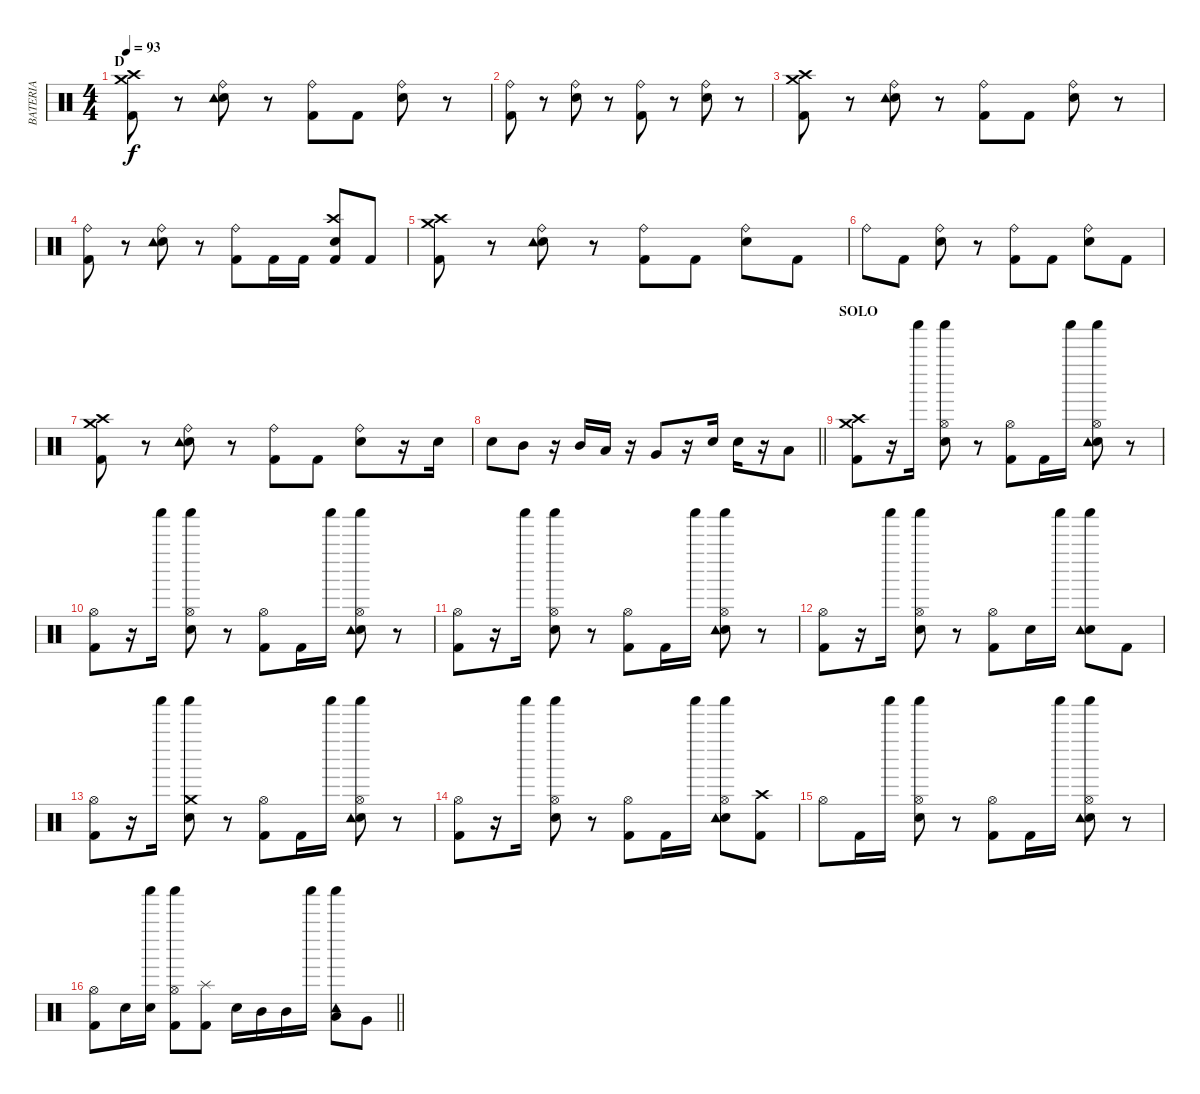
\track ("BATERIA" "BATERIA") {instrument percussion}
\staff {score}
\articulation defaults
\ts (4 4)
\section ("" "D")
\tempo 93
\clef neutral
\ks c
("Kick (hit) 2" "Crash high (hit)" "Crash medium (hit)").8{dy f} r.8 ("Electric Snare (hit)" "Ride (bell)" "Tambourine (hit)").8 r.8 ("Kick (hit) 2" "Ride (bell)").8 "Kick (hit) 2".8 ("Electric Snare (hit)" "Ride (bell)").8 r.8 |
("Kick (hit) 2" "Ride (bell)").8 r.8 ("Electric Snare (hit)" "Ride (bell)").8 r.8 ("Kick (hit) 2" "Ride (bell)").8 r.8 ("Electric Snare (hit)" "Ride (bell)").8 r.8 |
("Kick (hit) 2" "Crash medium (hit)" "Crash high (hit)").8 r.8 ("Electric Snare (hit)" "Ride (bell)" "Tambourine (hit)").8 r.8 ("Kick (hit) 2" "Ride (bell)").8 "Kick (hit) 2".8 ("Electric Snare (hit)" "Ride (bell)").8 r.8 |
("Kick (hit) 2" "Ride (bell)").8 r.8 ("Electric Snare (hit)" "Ride (bell)" "Tambourine (hit)").8 r.8 ("Kick (hit) 2" "Ride (bell)").8 "Kick (hit) 2".16 "Kick (hit) 2".16 ("Kick (hit) 2" "Electric Snare (hit)" "Crash high (hit)").8 "Kick (hit) 2".8 |
("Kick (hit) 2" "Crash high (hit)" "Crash medium (hit)").8 r.8 ("Electric Snare (hit)" "Ride (bell)" "Tambourine (hit)").8 r.8 ("Kick (hit) 2" "Ride (bell)").8 "Kick (hit) 2".8 ("Electric Snare (hit)" "Ride (bell)").8 "Kick (hit) 2".8 |
"Ride (bell)".8 "Kick (hit) 2".8 ("Electric Snare (hit)" "Ride (bell)").8 r.8 ("Kick (hit) 2" "Ride (bell)").8 "Kick (hit) 2".8 ("Electric Snare (hit)" "Ride (bell)").8 "Kick (hit) 2".8 |
("Kick (hit) 2" "Crash high (hit)" "Crash medium (hit)").8 r.8 ("Electric Snare (hit)" "Ride (bell)" "Tambourine (hit)").8 r.8 ("Kick (hit) 2" "Ride (bell)").8 "Kick (hit) 2".8 ("Electric Snare (hit)" "Ride (bell)").8 r.16 "Electric Snare (hit)".16 |
\barLineRight lightlight "Electric Snare (hit)".8 "Mid Tom (hit)".8
r.16 "Mid Tom (hit)".16 "Low Tom (hit)".16 r.16 "Very Low Tom (hit)".8 r.16 "Electric Snare (hit)".16 "Electric Snare (hit)".16 r.16 "Low Tom (hit)".8 |
\section ("" "SOLO")
("Kick (hit) 2" "Crash medium (hit)" "Crash high (hit)").8 r.16 "Shaker (hit)".16 ("Electric Snare (hit)" "Hi-Hat (open)" "Shaker (hit)").8 r.8 ("Kick (hit) 2" "Hi-Hat (open)").8 "Kick (hit) 2".16 "Shaker (hit)".16 ("Electric Snare (hit)" "Hi-Hat (open)" "Shaker (hit)" "Tambourine (hit)").8 r.8 |
("Kick (hit) 2" "Hi-Hat (open)").8 r.16 "Shaker (hit)".16 ("Electric Snare (hit)" "Hi-Hat (open)" "Shaker (hit)").8 r.8 ("Kick (hit) 2" "Hi-Hat (open)").8 "Kick (hit) 2".16 "Shaker (hit)".16 ("Electric Snare (hit)" "Hi-Hat (open)" "Shaker (hit)" "Tambourine (hit)").8 r.8 |
("Kick (hit) 2" "Hi-Hat (open)").8 r.16 "Shaker (hit)".16 ("Electric Snare (hit)" "Hi-Hat (open)" "Shaker (hit)").8 r.8 ("Kick (hit) 2" "Hi-Hat (open)").8 "Kick (hit) 2".16 "Shaker (hit)".16 ("Electric Snare (hit)" "Hi-Hat (open)" "Shaker (hit)" "Tambourine (hit)").8 r.8 |
("Kick (hit) 2" "Hi-Hat (open)").8 r.16 "Shaker (hit)".16 ("Electric Snare (hit)" "Hi-Hat (open)" "Shaker (hit)").8 r.8 ("Kick (hit) 2" "Hi-Hat (open)").8 "Electric Snare (hit)".16 "Shaker (hit)".16 ("Electric Snare (hit)" "Shaker (hit)" "Tambourine (hit)").8 "Kick (hit) 2".8 |
("Kick (hit) 2" "Hi-Hat (open)").8 r.16 "Shaker (hit)".16 ("Electric Snare (hit)" "Shaker (hit)" "Crash medium (hit)").8 r.8 ("Kick (hit) 2" "Hi-Hat (open)").8 "Kick (hit) 2".16 "Shaker (hit)".16 ("Electric Snare (hit)" "Hi-Hat (open)" "Shaker (hit)" "Tambourine (hit)").8 r.8 |
("Kick (hit) 2" "Hi-Hat (open)").8 r.16 "Shaker (hit)".16 ("Electric Snare (hit)" "Hi-Hat (open)" "Shaker (hit)").8 r.8 ("Kick (hit) 2" "Hi-Hat (open)").8 "Kick (hit) 2".16 "Shaker (hit)".16 ("Electric Snare (hit)" "Hi-Hat (open)" "Shaker (hit)" "Tambourine (hit)").8 ("Kick (hit) 2" "Crash high (hit)").8 |
"Hi-Hat (open)".8 "Kick (hit) 2".16 "Shaker (hit)".16 ("Electric Snare (hit)" "Hi-Hat (open)" "Shaker (hit)").8 r.8 ("Kick (hit) 2" "Hi-Hat (open)").8 "Kick (hit) 2".16 "Shaker (hit)".16 ("Electric Snare (hit)" "Hi-Hat (open)" "Shaker (hit)" "Tambourine (hit)").8 r.8 |
\barLineRight lightlight
("Kick (hit) 2" "Hi-Hat (open)").8 "Electric Snare (hit)".16 ("Electric Snare (hit)" "Shaker (hit)").16 ("Kick (hit) 2" "Hi-Hat (open)" "Shaker (hit)").8 ("Kick (hit) 2" "Splash (hit)").8 "Electric Snare (hit)".16 "Mid Tom (hit)".16 "Mid Tom (hit)".16 "Shaker (hit)".16 ("Low Tom (hit)" "Shaker (hit)" "Tambourine (hit)").8 "Very Low Tom (hit)".8
